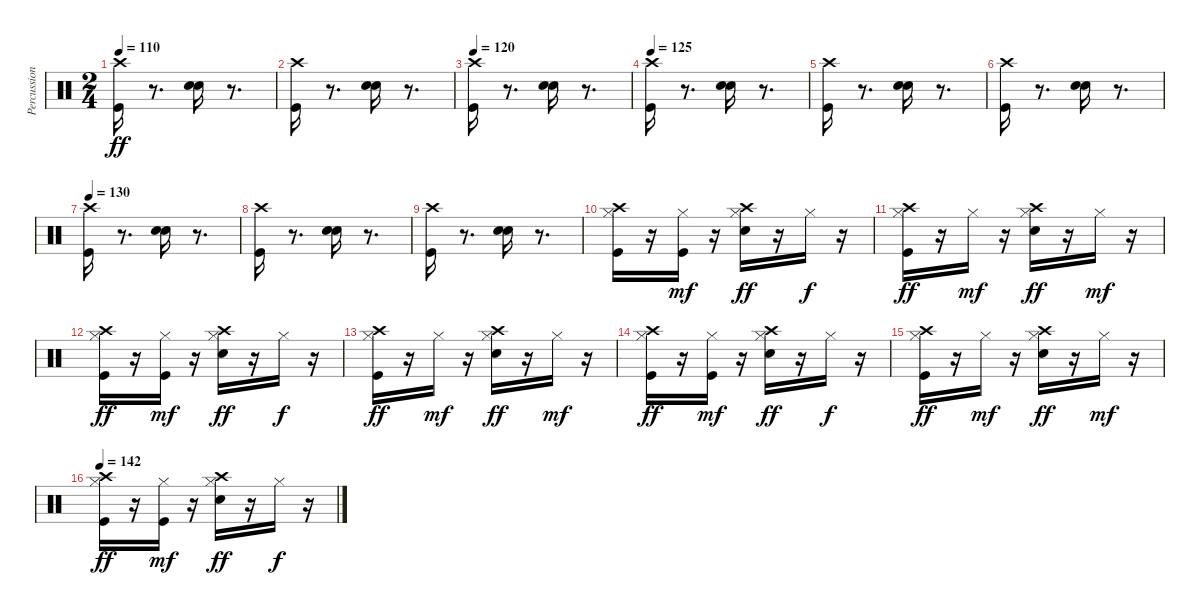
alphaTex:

\track ("Percussion" "Percussion") {instrument percussion}
\staff {score}
\articulation defaults
\ts (2 4)
\tempo 110
\clef neutral
\ks c
("Kick (hit)" "Crash high (hit)").16{dy ff} r.8{d} ("Snare (hit) 2" "Snare (hit) 2").16 r.8{d} |
("Kick (hit)" "Crash high (hit)").16 r.8{d} ("Snare (hit) 2" "Snare (hit) 2").16 r.8{d} |
\tempo 120
("Kick (hit)" "Crash high (hit)").16 r.8{d} ("Snare (hit) 2" "Snare (hit) 2").16 r.8{d} |
\tempo 125
("Kick (hit)" "Crash high (hit)").16 r.8{d} ("Snare (hit) 2" "Snare (hit) 2").16 r.8{d} |
("Kick (hit)" "Crash high (hit)").16 r.8{d} ("Snare (hit) 2" "Snare (hit) 2").16 r.8{d} |
("Kick (hit)" "Crash high (hit)").16 r.8{d} ("Snare (hit) 2" "Snare (hit) 2").16 r.8{d} |
\tempo 130
("Kick (hit)" "Crash high (hit)").16 r.8{d} ("Snare (hit) 2" "Snare (hit) 2").16 r.8{d} |
("Kick (hit)" "Crash high (hit)").16 r.8{d} ("Snare (hit) 2" "Snare (hit) 2").16 r.8{d} |
("Kick (hit)" "Crash high (hit)").16 r.8{d} ("Snare (hit) 2" "Snare (hit) 2").16 r.8{d} |
("Kick (hit)" "Hi-Hat (closed)" "Crash high (hit)").16 r.16 ("Kick (hit)" "Hi-Hat (closed)").16{dy mf} r.16 ("Snare (hit) 2" "Hi-Hat (closed)" "Crash high (hit)").16{dy ff} r.16 "Hi-Hat (closed)".16{dy f} r.16 |
("Kick (hit)" "Hi-Hat (closed)" "Crash high (hit)").16{dy ff} r.16 "Hi-Hat (closed)".16{dy mf} r.16 ("Snare (hit) 2" "Hi-Hat (closed)" "Crash high (hit)").16{dy ff} r.16 "Hi-Hat (closed)".16{dy mf} r.16 |
("Kick (hit)" "Hi-Hat (closed)" "Crash high (hit)").16{dy ff} r.16 ("Kick (hit)" "Hi-Hat (closed)").16{dy mf} r.16 ("Snare (hit) 2" "Hi-Hat (closed)" "Crash high (hit)").16{dy ff} r.16 "Hi-Hat (closed)".16{dy f} r.16 |
("Kick (hit)" "Hi-Hat (closed)" "Crash high (hit)").16{dy ff} r.16 "Hi-Hat (closed)".16{dy mf} r.16 ("Snare (hit) 2" "Hi-Hat (closed)" "Crash high (hit)").16{dy ff} r.16 "Hi-Hat (closed)".16{dy mf} r.16 |
("Kick (hit)" "Hi-Hat (closed)" "Crash high (hit)").16{dy ff} r.16 ("Kick (hit)" "Hi-Hat (closed)").16{dy mf} r.16 ("Snare (hit) 2" "Hi-Hat (closed)" "Crash high (hit)").16{dy ff} r.16 "Hi-Hat (closed)".16{dy f} r.16 |
("Kick (hit)" "Hi-Hat (closed)" "Crash high (hit)").16{dy ff} r.16 "Hi-Hat (closed)".16{dy mf} r.16 ("Snare (hit) 2" "Hi-Hat (closed)" "Crash high (hit)").16{dy ff} r.16 "Hi-Hat (closed)".16{dy mf} r.16 |
\tempo 142
("Kick (hit)" "Hi-Hat (closed)" "Crash high (hit)").16{dy ff} r.16 ("Kick (hit)" "Hi-Hat (closed)").16{dy mf} r.16 ("Snare (hit) 2" "Hi-Hat (closed)" "Crash high (hit)").16{dy ff} r.16 "Hi-Hat (closed)".16{dy f} r.16
